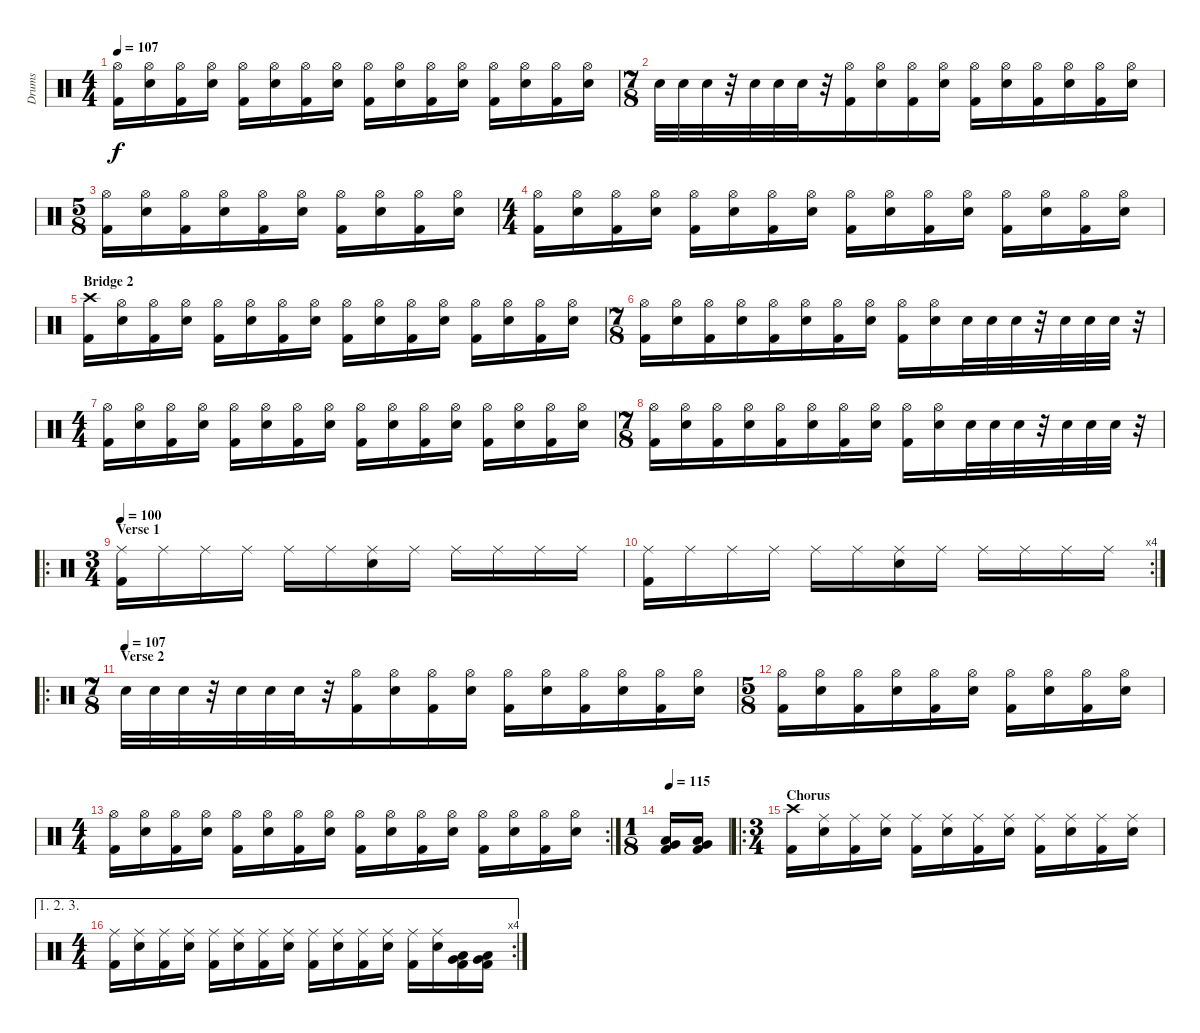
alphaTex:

\track ("Drums" "Drums") {instrument percussion}
\staff {score}
\articulation defaults
\ts (4 4)
\tempo 107
\clef neutral
\ks c
("Hi-Hat (open)" "Kick (hit) 2").16{dy f} ("Hi-Hat (open)" "Electric Snare (hit)").16 ("Hi-Hat (open)" "Kick (hit) 2").16 ("Hi-Hat (open)" "Electric Snare (hit)").16 ("Hi-Hat (open)" "Kick (hit) 2").16 ("Hi-Hat (open)" "Electric Snare (hit)").16 ("Hi-Hat (open)" "Kick (hit) 2").16 ("Hi-Hat (open)" "Electric Snare (hit)").16 ("Hi-Hat (open)" "Kick (hit) 2").16 ("Hi-Hat (open)" "Electric Snare (hit)").16 ("Hi-Hat (open)" "Kick (hit) 2").16 ("Hi-Hat (open)" "Electric Snare (hit)").16 ("Hi-Hat (open)" "Kick (hit) 2").16 ("Hi-Hat (open)" "Electric Snare (hit)").16 ("Hi-Hat (open)" "Kick (hit) 2").16 ("Hi-Hat (open)" "Electric Snare (hit)").16 |
\ts (7 8)
"Electric Snare (hit)".32 "Electric Snare (hit)".32 "Electric Snare (hit)".32 r.32 "Electric Snare (hit)".32 "Electric Snare (hit)".32 "Electric Snare (hit)".32 r.32 ("Hi-Hat (open)" "Kick (hit) 2").16 ("Hi-Hat (open)" "Electric Snare (hit)").16 ("Hi-Hat (open)" "Kick (hit) 2").16 ("Hi-Hat (open)" "Electric Snare (hit)").16 ("Hi-Hat (open)" "Kick (hit) 2").16 ("Hi-Hat (open)" "Electric Snare (hit)").16 ("Hi-Hat (open)" "Kick (hit) 2").16 ("Hi-Hat (open)" "Electric Snare (hit)").16 ("Hi-Hat (open)" "Kick (hit) 2").16 ("Hi-Hat (open)" "Electric Snare (hit)").16 |
\ts (5 8)
("Hi-Hat (open)" "Kick (hit) 2").16 ("Hi-Hat (open)" "Electric Snare (hit)").16 ("Hi-Hat (open)" "Kick (hit) 2").16 ("Hi-Hat (open)" "Electric Snare (hit)").16 ("Hi-Hat (open)" "Kick (hit) 2").16 ("Hi-Hat (open)" "Electric Snare (hit)").16 ("Hi-Hat (open)" "Kick (hit) 2").16 ("Hi-Hat (open)" "Electric Snare (hit)").16 ("Hi-Hat (open)" "Kick (hit) 2").16 ("Hi-Hat (open)" "Electric Snare (hit)").16 |
\ts (4 4)
("Hi-Hat (open)" "Kick (hit) 2").16 ("Hi-Hat (open)" "Electric Snare (hit)").16 ("Hi-Hat (open)" "Kick (hit) 2").16 ("Hi-Hat (open)" "Electric Snare (hit)").16 ("Hi-Hat (open)" "Kick (hit) 2").16 ("Hi-Hat (open)" "Electric Snare (hit)").16 ("Hi-Hat (open)" "Kick (hit) 2").16 ("Hi-Hat (open)" "Electric Snare (hit)").16 ("Hi-Hat (open)" "Kick (hit) 2").16 ("Hi-Hat (open)" "Electric Snare (hit)").16 ("Hi-Hat (open)" "Kick (hit) 2").16 ("Hi-Hat (open)" "Electric Snare (hit)").16 ("Hi-Hat (open)" "Kick (hit) 2").16 ("Hi-Hat (open)" "Electric Snare (hit)").16 ("Hi-Hat (open)" "Kick (hit) 2").16 ("Hi-Hat (open)" "Electric Snare (hit)").16 |
\section ("" "Bridge 2")
("Crash high (hit)" "Kick (hit) 2").16 ("Hi-Hat (open)" "Electric Snare (hit)").16 ("Hi-Hat (open)" "Kick (hit) 2").16 ("Hi-Hat (open)" "Electric Snare (hit)").16 ("Hi-Hat (open)" "Kick (hit) 2").16 ("Hi-Hat (open)" "Electric Snare (hit)").16 ("Hi-Hat (open)" "Kick (hit) 2").16 ("Hi-Hat (open)" "Electric Snare (hit)").16 ("Hi-Hat (open)" "Kick (hit) 2").16 ("Hi-Hat (open)" "Electric Snare (hit)").16 ("Hi-Hat (open)" "Kick (hit) 2").16 ("Hi-Hat (open)" "Electric Snare (hit)").16 ("Hi-Hat (open)" "Kick (hit) 2").16 ("Hi-Hat (open)" "Electric Snare (hit)").16 ("Hi-Hat (open)" "Kick (hit) 2").16 ("Hi-Hat (open)" "Electric Snare (hit)").16 |
\ts (7 8)
("Hi-Hat (open)" "Kick (hit) 2").16 ("Hi-Hat (open)" "Electric Snare (hit)").16 ("Hi-Hat (open)" "Kick (hit) 2").16 ("Hi-Hat (open)" "Electric Snare (hit)").16 ("Hi-Hat (open)" "Kick (hit) 2").16 ("Hi-Hat (open)" "Electric Snare (hit)").16 ("Hi-Hat (open)" "Kick (hit) 2").16 ("Hi-Hat (open)" "Electric Snare (hit)").16 ("Hi-Hat (open)" "Kick (hit) 2").16 ("Hi-Hat (open)" "Electric Snare (hit)").16 "Electric Snare (hit)".32 "Electric Snare (hit)".32 "Electric Snare (hit)".32 r.32 "Electric Snare (hit)".32 "Electric Snare (hit)".32 "Electric Snare (hit)".32 r.32 |
\ts (4 4)
("Hi-Hat (open)" "Kick (hit) 2").16 ("Hi-Hat (open)" "Electric Snare (hit)").16 ("Hi-Hat (open)" "Kick (hit) 2").16 ("Hi-Hat (open)" "Electric Snare (hit)").16 ("Hi-Hat (open)" "Kick (hit) 2").16 ("Hi-Hat (open)" "Electric Snare (hit)").16 ("Hi-Hat (open)" "Kick (hit) 2").16 ("Hi-Hat (open)" "Electric Snare (hit)").16 ("Hi-Hat (open)" "Kick (hit) 2").16 ("Hi-Hat (open)" "Electric Snare (hit)").16 ("Hi-Hat (open)" "Kick (hit) 2").16 ("Hi-Hat (open)" "Electric Snare (hit)").16 ("Hi-Hat (open)" "Kick (hit) 2").16 ("Hi-Hat (open)" "Electric Snare (hit)").16 ("Hi-Hat (open)" "Kick (hit) 2").16 ("Hi-Hat (open)" "Electric Snare (hit)").16 |
\ts (7 8)
("Hi-Hat (open)" "Kick (hit) 2").16 ("Hi-Hat (open)" "Electric Snare (hit)").16 ("Hi-Hat (open)" "Kick (hit) 2").16 ("Hi-Hat (open)" "Electric Snare (hit)").16 ("Hi-Hat (open)" "Kick (hit) 2").16 ("Hi-Hat (open)" "Electric Snare (hit)").16 ("Hi-Hat (open)" "Kick (hit) 2").16 ("Hi-Hat (open)" "Electric Snare (hit)").16 ("Hi-Hat (open)" "Kick (hit) 2").16 ("Hi-Hat (open)" "Electric Snare (hit)").16 "Electric Snare (hit)".32 "Electric Snare (hit)".32 "Electric Snare (hit)".32 r.32 "Electric Snare (hit)".32 "Electric Snare (hit)".32 "Electric Snare (hit)".32 r.32 |
\ro
\ts (3 4)
\section ("" "Verse 1")
\tempo 100
("Ride (middle)" "Kick (hit) 2").16 "Ride (middle)".16 "Ride (middle)".16 "Ride (middle)".16 "Ride (middle)".16 "Ride (middle)".16 ("Ride (middle)" "Electric Snare (hit)").16 "Ride (middle)".16 "Ride (middle)".16 "Ride (middle)".16 "Ride (middle)".16 "Ride (middle)".16 |
\rc 4
("Ride (middle)" "Kick (hit) 2").16 "Ride (middle)".16 "Ride (middle)".16 "Ride (middle)".16 "Ride (middle)".16 "Ride (middle)".16 ("Ride (middle)" "Electric Snare (hit)").16 "Ride (middle)".16 "Ride (middle)".16 "Ride (middle)".16 "Ride (middle)".16 "Ride (middle)".16 |
\ro
\ts (7 8)
\section ("" "Verse 2")
\tempo (107)
"Electric Snare (hit)".32 "Electric Snare (hit)".32 "Electric Snare (hit)".32 r.32 "Electric Snare (hit)".32 "Electric Snare (hit)".32 "Electric Snare (hit)".32 r.32 ("Hi-Hat (open)" "Kick (hit) 2").16 ("Hi-Hat (open)" "Electric Snare (hit)").16 ("Hi-Hat (open)" "Kick (hit) 2").16 ("Hi-Hat (open)" "Electric Snare (hit)").16 ("Hi-Hat (open)" "Kick (hit) 2").16 ("Hi-Hat (open)" "Electric Snare (hit)").16 ("Hi-Hat (open)" "Kick (hit) 2").16 ("Hi-Hat (open)" "Electric Snare (hit)").16 ("Hi-Hat (open)" "Kick (hit) 2").16 ("Hi-Hat (open)" "Electric Snare (hit)").16 |
\ts (5 8)
("Hi-Hat (open)" "Kick (hit) 2").16 ("Hi-Hat (open)" "Electric Snare (hit)").16 ("Hi-Hat (open)" "Kick (hit) 2").16 ("Hi-Hat (open)" "Electric Snare (hit)").16 ("Hi-Hat (open)" "Kick (hit) 2").16 ("Hi-Hat (open)" "Electric Snare (hit)").16 ("Hi-Hat (open)" "Kick (hit) 2").16 ("Hi-Hat (open)" "Electric Snare (hit)").16 ("Hi-Hat (open)" "Kick (hit) 2").16 ("Hi-Hat (open)" "Electric Snare (hit)").16 |
\rc 2
\ts (4 4)
("Hi-Hat (open)" "Kick (hit) 2").16 ("Hi-Hat (open)" "Electric Snare (hit)").16 ("Hi-Hat (open)" "Kick (hit) 2").16 ("Hi-Hat (open)" "Electric Snare (hit)").16 ("Hi-Hat (open)" "Kick (hit) 2").16 ("Hi-Hat (open)" "Electric Snare (hit)").16 ("Hi-Hat (open)" "Kick (hit) 2").16 ("Hi-Hat (open)" "Electric Snare (hit)").16 ("Hi-Hat (open)" "Kick (hit) 2").16 ("Hi-Hat (open)" "Electric Snare (hit)").16 ("Hi-Hat (open)" "Kick (hit) 2").16 ("Hi-Hat (open)" "Electric Snare (hit)").16 ("Hi-Hat (open)" "Kick (hit) 2").16 ("Hi-Hat (open)" "Electric Snare (hit)").16 ("Hi-Hat (open)" "Kick (hit) 2").16 ("Hi-Hat (open)" "Electric Snare (hit)").16 |
\ts (1 8)
\tempo 115
("Very Low Tom (hit)" "Low Floor Tom (hit)" "Kick (hit) 2").16 ("Very Low Tom (hit)" "Low Floor Tom (hit)" "Kick (hit) 2").16 |
\ro
\ts (3 4)
\section ("" "Chorus")
("Crash high (hit)" "Kick (hit) 2").16 ("Ride (middle)" "Electric Snare (hit)").16 ("Ride (middle)" "Kick (hit) 2").16 ("Ride (middle)" "Electric Snare (hit)").16 ("Ride (middle)" "Kick (hit) 2").16 ("Ride (middle)" "Electric Snare (hit)").16 ("Ride (middle)" "Kick (hit) 2").16 ("Ride (middle)" "Electric Snare (hit)").16 ("Ride (middle)" "Kick (hit) 2").16 ("Ride (middle)" "Electric Snare (hit)").16 ("Ride (middle)" "Kick (hit) 2").16 ("Ride (middle)" "Electric Snare (hit)").16 |
\ae (1 2 3)
\rc 4
\ts (4 4)
("Ride (middle)" "Kick (hit) 2").16 ("Ride (middle)" "Electric Snare (hit)").16 ("Ride (middle)" "Kick (hit) 2").16 ("Ride (middle)" "Electric Snare (hit)").16 ("Ride (middle)" "Kick (hit) 2").16 ("Ride (middle)" "Electric Snare (hit)").16 ("Ride (middle)" "Kick (hit) 2").16 ("Ride (middle)" "Electric Snare (hit)").16 ("Ride (middle)" "Kick (hit) 2").16 ("Ride (middle)" "Electric Snare (hit)").16 ("Ride (middle)" "Kick (hit) 2").16 ("Ride (middle)" "Electric Snare (hit)").16 ("Ride (middle)" "Kick (hit) 2").16 ("Ride (middle)" "Electric Snare (hit)").16 ("Very Low Tom (hit)" "Low Floor Tom (hit)" "Kick (hit) 2").16 ("Very Low Tom (hit)" "Low Floor Tom (hit)" "Kick (hit) 2").16
